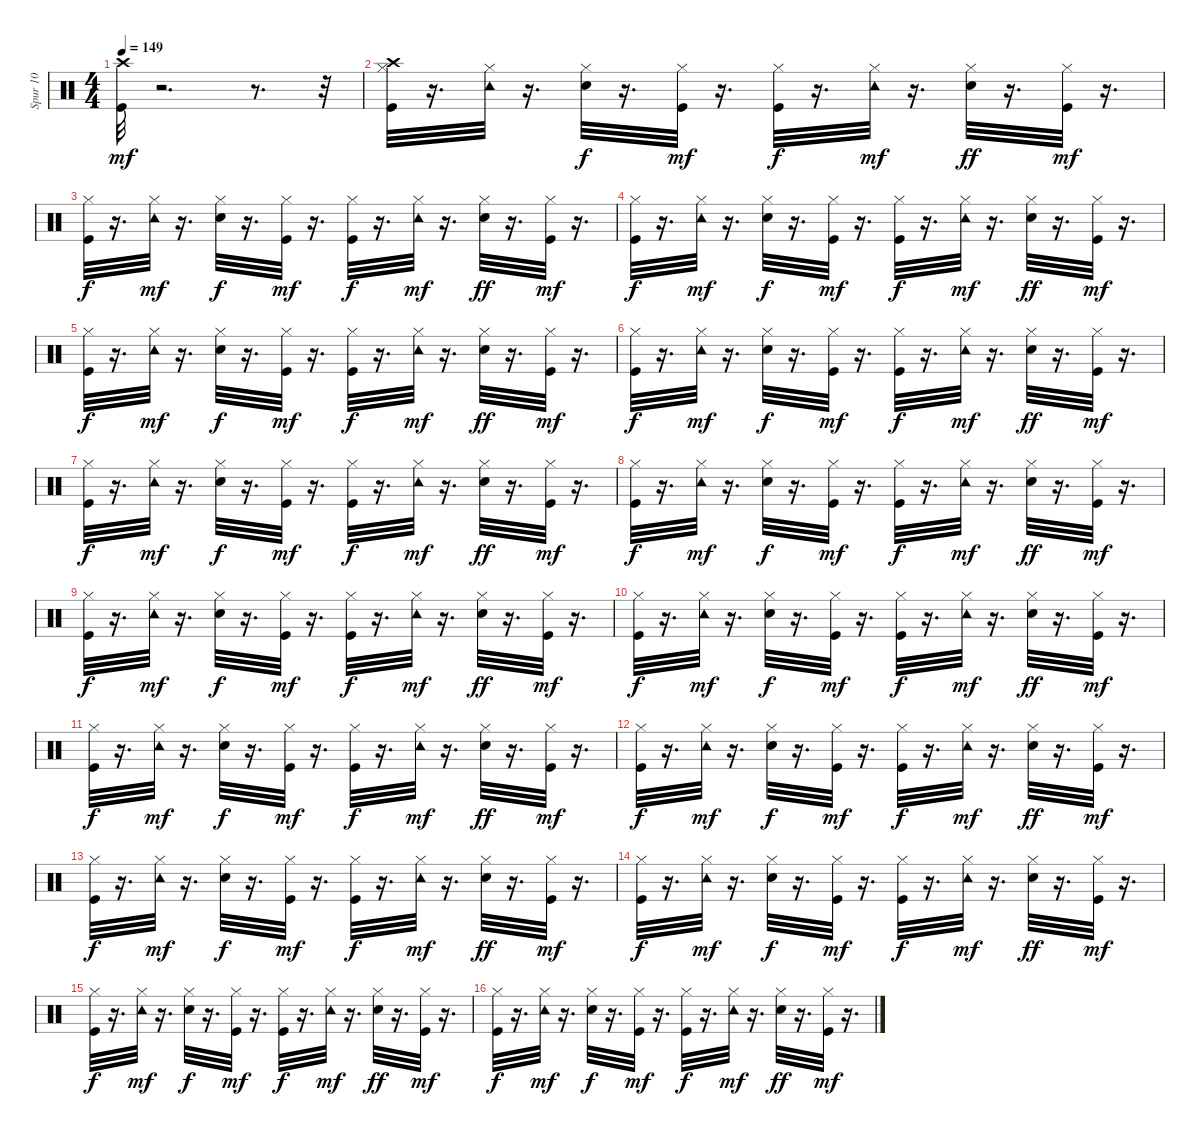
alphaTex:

\track ("Spur 10" "Spur 10") {instrument percussion}
\staff {score}
\articulation defaults
\ts (4 4)
\tempo 149
\clef neutral
\ks c
("Kick (hit)" "Crash high (hit)").32{dy mf} r.2{d} r.8{d} r.32 |
("Kick (hit)" "Hi-Hat (closed)" "Crash high (hit)").32 r.16{d} ("Hi-Hat (closed)" "Tambourine (hit)").32 r.16{d} ("Snare (hit) 2" "Hi-Hat (closed)").32{dy f} r.16{d} ("Kick (hit)" "Hi-Hat (closed)").32{dy mf} r.16{d} ("Kick (hit)" "Hi-Hat (closed)").32{dy f} r.16{d} ("Hi-Hat (closed)" "Tambourine (hit)").32{dy mf} r.16{d} ("Snare (hit) 2" "Hi-Hat (closed)").32{dy ff} r.16{d} ("Kick (hit)" "Hi-Hat (closed)").32{dy mf} r.16{d} |
("Kick (hit)" "Hi-Hat (closed)").32{dy f} r.16{d} ("Hi-Hat (closed)" "Tambourine (hit)").32{dy mf} r.16{d} ("Snare (hit) 2" "Hi-Hat (closed)").32{dy f} r.16{d} ("Kick (hit)" "Hi-Hat (closed)").32{dy mf} r.16{d} ("Kick (hit)" "Hi-Hat (closed)").32{dy f} r.16{d} ("Hi-Hat (closed)" "Tambourine (hit)").32{dy mf} r.16{d} ("Snare (hit) 2" "Hi-Hat (closed)").32{dy ff} r.16{d} ("Kick (hit)" "Hi-Hat (closed)").32{dy mf} r.16{d} |
("Kick (hit)" "Hi-Hat (closed)").32{dy f} r.16{d} ("Hi-Hat (closed)" "Tambourine (hit)").32{dy mf} r.16{d} ("Snare (hit) 2" "Hi-Hat (closed)").32{dy f} r.16{d} ("Kick (hit)" "Hi-Hat (closed)").32{dy mf} r.16{d} ("Kick (hit)" "Hi-Hat (closed)").32{dy f} r.16{d} ("Hi-Hat (closed)" "Tambourine (hit)").32{dy mf} r.16{d} ("Snare (hit) 2" "Hi-Hat (closed)").32{dy ff} r.16{d} ("Kick (hit)" "Hi-Hat (closed)").32{dy mf} r.16{d} |
("Kick (hit)" "Hi-Hat (closed)").32{dy f} r.16{d} ("Hi-Hat (closed)" "Tambourine (hit)").32{dy mf} r.16{d} ("Snare (hit) 2" "Hi-Hat (closed)").32{dy f} r.16{d} ("Kick (hit)" "Hi-Hat (closed)").32{dy mf} r.16{d} ("Kick (hit)" "Hi-Hat (closed)").32{dy f} r.16{d} ("Hi-Hat (closed)" "Tambourine (hit)").32{dy mf} r.16{d} ("Snare (hit) 2" "Hi-Hat (closed)").32{dy ff} r.16{d} ("Kick (hit)" "Hi-Hat (closed)").32{dy mf} r.16{d} |
("Kick (hit)" "Hi-Hat (closed)").32{dy f} r.16{d} ("Hi-Hat (closed)" "Tambourine (hit)").32{dy mf} r.16{d} ("Snare (hit) 2" "Hi-Hat (closed)").32{dy f} r.16{d} ("Kick (hit)" "Hi-Hat (closed)").32{dy mf} r.16{d} ("Kick (hit)" "Hi-Hat (closed)").32{dy f} r.16{d} ("Hi-Hat (closed)" "Tambourine (hit)").32{dy mf} r.16{d} ("Snare (hit) 2" "Hi-Hat (closed)").32{dy ff} r.16{d} ("Kick (hit)" "Hi-Hat (closed)").32{dy mf} r.16{d} |
("Kick (hit)" "Hi-Hat (closed)").32{dy f} r.16{d} ("Hi-Hat (closed)" "Tambourine (hit)").32{dy mf} r.16{d} ("Snare (hit) 2" "Hi-Hat (closed)").32{dy f} r.16{d} ("Kick (hit)" "Hi-Hat (closed)").32{dy mf} r.16{d} ("Kick (hit)" "Hi-Hat (closed)").32{dy f} r.16{d} ("Hi-Hat (closed)" "Tambourine (hit)").32{dy mf} r.16{d} ("Snare (hit) 2" "Hi-Hat (closed)").32{dy ff} r.16{d} ("Kick (hit)" "Hi-Hat (closed)").32{dy mf} r.16{d} |
("Kick (hit)" "Hi-Hat (closed)").32{dy f} r.16{d} ("Hi-Hat (closed)" "Tambourine (hit)").32{dy mf} r.16{d} ("Snare (hit) 2" "Hi-Hat (closed)").32{dy f} r.16{d} ("Kick (hit)" "Hi-Hat (closed)").32{dy mf} r.16{d} ("Kick (hit)" "Hi-Hat (closed)").32{dy f} r.16{d} ("Hi-Hat (closed)" "Tambourine (hit)").32{dy mf} r.16{d} ("Snare (hit) 2" "Hi-Hat (closed)").32{dy ff} r.16{d} ("Kick (hit)" "Hi-Hat (closed)").32{dy mf} r.16{d} |
("Kick (hit)" "Hi-Hat (closed)").32{dy f} r.16{d} ("Hi-Hat (closed)" "Tambourine (hit)").32{dy mf} r.16{d} ("Snare (hit) 2" "Hi-Hat (closed)").32{dy f} r.16{d} ("Kick (hit)" "Hi-Hat (closed)").32{dy mf} r.16{d} ("Kick (hit)" "Hi-Hat (closed)").32{dy f} r.16{d} ("Hi-Hat (closed)" "Tambourine (hit)").32{dy mf} r.16{d} ("Snare (hit) 2" "Hi-Hat (closed)").32{dy ff} r.16{d} ("Kick (hit)" "Hi-Hat (closed)").32{dy mf} r.16{d} |
("Kick (hit)" "Hi-Hat (closed)").32{dy f} r.16{d} ("Hi-Hat (closed)" "Tambourine (hit)").32{dy mf} r.16{d} ("Snare (hit) 2" "Hi-Hat (closed)").32{dy f} r.16{d} ("Kick (hit)" "Hi-Hat (closed)").32{dy mf} r.16{d} ("Kick (hit)" "Hi-Hat (closed)").32{dy f} r.16{d} ("Hi-Hat (closed)" "Tambourine (hit)").32{dy mf} r.16{d} ("Snare (hit) 2" "Hi-Hat (closed)").32{dy ff} r.16{d} ("Kick (hit)" "Hi-Hat (closed)").32{dy mf} r.16{d} |
("Kick (hit)" "Hi-Hat (closed)").32{dy f} r.16{d} ("Hi-Hat (closed)" "Tambourine (hit)").32{dy mf} r.16{d} ("Snare (hit) 2" "Hi-Hat (closed)").32{dy f} r.16{d} ("Kick (hit)" "Hi-Hat (closed)").32{dy mf} r.16{d} ("Kick (hit)" "Hi-Hat (closed)").32{dy f} r.16{d} ("Hi-Hat (closed)" "Tambourine (hit)").32{dy mf} r.16{d} ("Snare (hit) 2" "Hi-Hat (closed)").32{dy ff} r.16{d} ("Kick (hit)" "Hi-Hat (closed)").32{dy mf} r.16{d} |
("Kick (hit)" "Hi-Hat (closed)").32{dy f} r.16{d} ("Hi-Hat (closed)" "Tambourine (hit)").32{dy mf} r.16{d} ("Snare (hit) 2" "Hi-Hat (closed)").32{dy f} r.16{d} ("Kick (hit)" "Hi-Hat (closed)").32{dy mf} r.16{d} ("Kick (hit)" "Hi-Hat (closed)").32{dy f} r.16{d} ("Hi-Hat (closed)" "Tambourine (hit)").32{dy mf} r.16{d} ("Snare (hit) 2" "Hi-Hat (closed)").32{dy ff} r.16{d} ("Kick (hit)" "Hi-Hat (closed)").32{dy mf} r.16{d} |
("Kick (hit)" "Hi-Hat (closed)").32{dy f} r.16{d} ("Hi-Hat (closed)" "Tambourine (hit)").32{dy mf} r.16{d} ("Snare (hit) 2" "Hi-Hat (closed)").32{dy f} r.16{d} ("Kick (hit)" "Hi-Hat (closed)").32{dy mf} r.16{d} ("Kick (hit)" "Hi-Hat (closed)").32{dy f} r.16{d} ("Hi-Hat (closed)" "Tambourine (hit)").32{dy mf} r.16{d} ("Snare (hit) 2" "Hi-Hat (closed)").32{dy ff} r.16{d} ("Kick (hit)" "Hi-Hat (closed)").32{dy mf} r.16{d} |
("Kick (hit)" "Hi-Hat (closed)").32{dy f} r.16{d} ("Hi-Hat (closed)" "Tambourine (hit)").32{dy mf} r.16{d} ("Snare (hit) 2" "Hi-Hat (closed)").32{dy f} r.16{d} ("Kick (hit)" "Hi-Hat (closed)").32{dy mf} r.16{d} ("Kick (hit)" "Hi-Hat (closed)").32{dy f} r.16{d} ("Hi-Hat (closed)" "Tambourine (hit)").32{dy mf} r.16{d} ("Snare (hit) 2" "Hi-Hat (closed)").32{dy ff} r.16{d} ("Kick (hit)" "Hi-Hat (closed)").32{dy mf} r.16{d} |
("Kick (hit)" "Hi-Hat (closed)").32{dy f} r.16{d} ("Hi-Hat (closed)" "Tambourine (hit)").32{dy mf} r.16{d} ("Snare (hit) 2" "Hi-Hat (closed)").32{dy f} r.16{d} ("Kick (hit)" "Hi-Hat (closed)").32{dy mf} r.16{d} ("Kick (hit)" "Hi-Hat (closed)").32{dy f} r.16{d} ("Hi-Hat (closed)" "Tambourine (hit)").32{dy mf} r.16{d} ("Snare (hit) 2" "Hi-Hat (closed)").32{dy ff} r.16{d} ("Kick (hit)" "Hi-Hat (closed)").32{dy mf} r.16{d} |
("Kick (hit)" "Hi-Hat (closed)").32{dy f} r.16{d} ("Hi-Hat (closed)" "Tambourine (hit)").32{dy mf} r.16{d} ("Snare (hit) 2" "Hi-Hat (closed)").32{dy f} r.16{d} ("Kick (hit)" "Hi-Hat (closed)").32{dy mf} r.16{d} ("Kick (hit)" "Hi-Hat (closed)").32{dy f} r.16{d} ("Hi-Hat (closed)" "Tambourine (hit)").32{dy mf} r.16{d} ("Snare (hit) 2" "Hi-Hat (closed)").32{dy ff} r.16{d} ("Kick (hit)" "Hi-Hat (closed)").32{dy mf} r.16{d}
